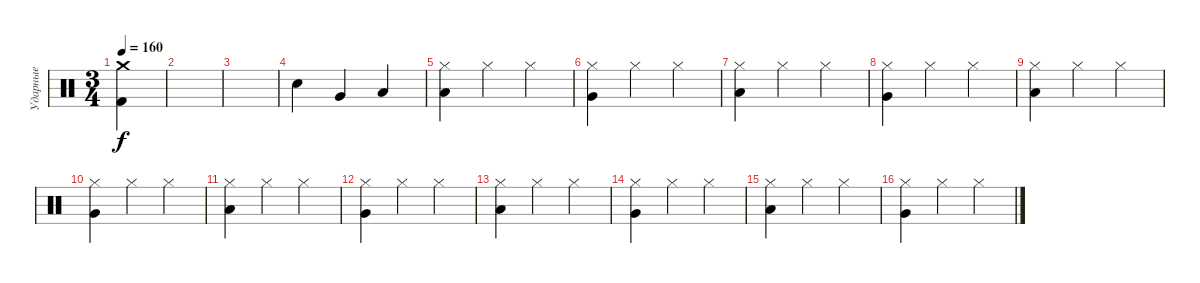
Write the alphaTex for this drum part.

\track ("Ударные" "Ударные") {instrument percussion}
\staff {score}
\articulation defaults
\ts (3 4)
\tempo 160
\clef neutral
\ks c
("Crash medium (hit)" "Kick (hit) 2").4{dy f} |
|
|
"Snare (hit) 2".4 "Very Low Tom (hit)".4 "Low Floor Tom (hit)".4 |
("Hi-Hat (closed)" "Low Floor Tom (hit)").4 "Hi-Hat (closed)".4 "Hi-Hat (closed)".4 |
("Hi-Hat (closed)" "Very Low Tom (hit)").4 "Hi-Hat (closed)".4 "Hi-Hat (closed)".4 |
("Hi-Hat (closed)" "Low Floor Tom (hit)").4 "Hi-Hat (closed)".4 "Hi-Hat (closed)".4 |
("Hi-Hat (closed)" "Very Low Tom (hit)").4 "Hi-Hat (closed)".4 "Hi-Hat (closed)".4 |
("Hi-Hat (closed)" "Low Floor Tom (hit)").4 "Hi-Hat (closed)".4 "Hi-Hat (closed)".4 |
("Hi-Hat (closed)" "Very Low Tom (hit)").4 "Hi-Hat (closed)".4 "Hi-Hat (closed)".4 |
("Hi-Hat (closed)" "Low Floor Tom (hit)").4 "Hi-Hat (closed)".4 "Hi-Hat (closed)".4 |
("Hi-Hat (closed)" "Very Low Tom (hit)").4 "Hi-Hat (closed)".4 "Hi-Hat (closed)".4 |
("Hi-Hat (closed)" "Low Floor Tom (hit)").4 "Hi-Hat (closed)".4 "Hi-Hat (closed)".4 |
("Hi-Hat (closed)" "Very Low Tom (hit)").4 "Hi-Hat (closed)".4 "Hi-Hat (closed)".4 |
("Hi-Hat (closed)" "Low Floor Tom (hit)").4 "Hi-Hat (closed)".4 "Hi-Hat (closed)".4 |
("Hi-Hat (closed)" "Very Low Tom (hit)").4 "Hi-Hat (closed)".4 "Hi-Hat (closed)".4
